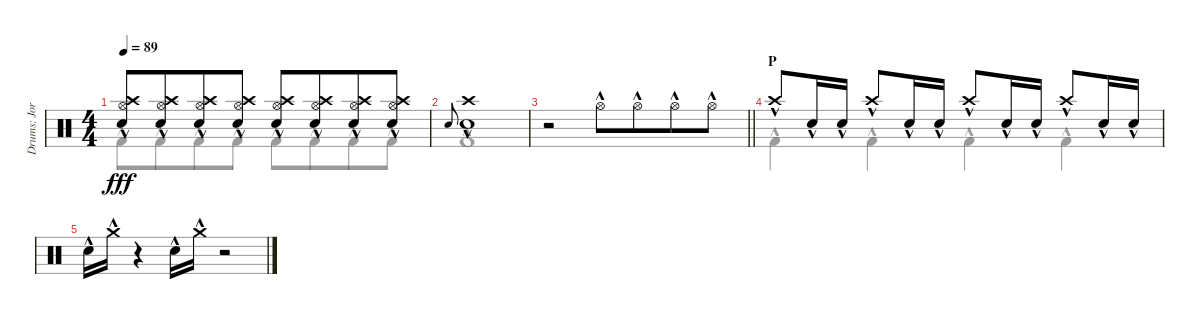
\track ("Drums: Jorg" "Drums: Jor") {instrument percussion}
\staff {score}
\articulation defaults
\voice
\ts (4 4)
\tempo 89
\clef neutral
\ks c
("Crash high (hit)"{hac} "Hi-Hat (open)"{hac} "Snare (hit) 2"{hac}).8{dy fff} ("Crash high (hit)"{hac} "Hi-Hat (open)"{hac} "Snare (hit) 2"{hac}).8{beam merge} ("Crash high (hit)"{hac} "Hi-Hat (open)"{hac} "Snare (hit) 2"{hac}).8 ("Crash high (hit)"{hac} "Hi-Hat (open)"{hac} "Snare (hit) 2"{hac}).8 ("Crash high (hit)"{hac} "Hi-Hat (open)"{hac} "Snare (hit) 2"{hac}).8 ("Crash high (hit)"{hac} "Hi-Hat (open)"{hac} "Snare (hit) 2"{hac}).8{beam merge} ("Crash high (hit)"{hac} "Hi-Hat (open)"{hac} "Snare (hit) 2"{hac}).8 ("Crash high (hit)"{hac} "Hi-Hat (open)"{hac} "Snare (hit) 2"{hac}).8 |
"Electric Snare (hit)".8{gr onbeat} ("Crash high (hit)"{hac} "Snare (hit) 2"{hac}).1 |
\barLineRight lightlight
r.2 "Hi-Hat (open)"{hac}.8 "Hi-Hat (open)"{hac}.8{beam merge} "Hi-Hat (open)"{hac}.8 "Hi-Hat (open)"{hac}.8 |
\section ("" "P")
"Crash high (hit)"{hac}.8 "Snare (hit) 2"{hac}.16 "Snare (hit) 2"{hac}.16 "Crash high (hit)"{hac}.8 "Snare (hit) 2"{hac}.16 "Snare (hit) 2"{hac}.16 "Crash high (hit)"{hac}.8 "Snare (hit) 2"{hac}.16 "Snare (hit) 2"{hac}.16 "Crash high (hit)"{hac}.8 "Snare (hit) 2"{hac}.16 "Snare (hit) 2"{hac}.16 |
"Snare (hit) 2"{hac}.16 "Crash medium (hit)"{hac}.16 r.4 "Snare (hit) 2"{hac}.16 "Crash medium (hit)"{hac}.16 r.2
\voice
\clef neutral
\ottava regular
\simile none
\ks c "Kick (hit) 2"{hac}.8{dy fff} "Kick (hit) 2"{hac}.8{beam merge} "Kick (hit) 2"{hac}.8 "Kick (hit) 2"{hac}.8 "Kick (hit) 2"{hac}.8 "Kick (hit) 2"{hac}.8{beam merge} "Kick (hit) 2"{hac}.8 "Kick (hit) 2"{hac}.8
|
"Kick (hit) 2"{hac}.1 |
\barLineRight lightlight
|
"Kick (hit) 2"{hac}.4 "Kick (hit) 2"{hac}.4 "Kick (hit) 2"{hac}.4 "Kick (hit) 2"{hac}.4 |
